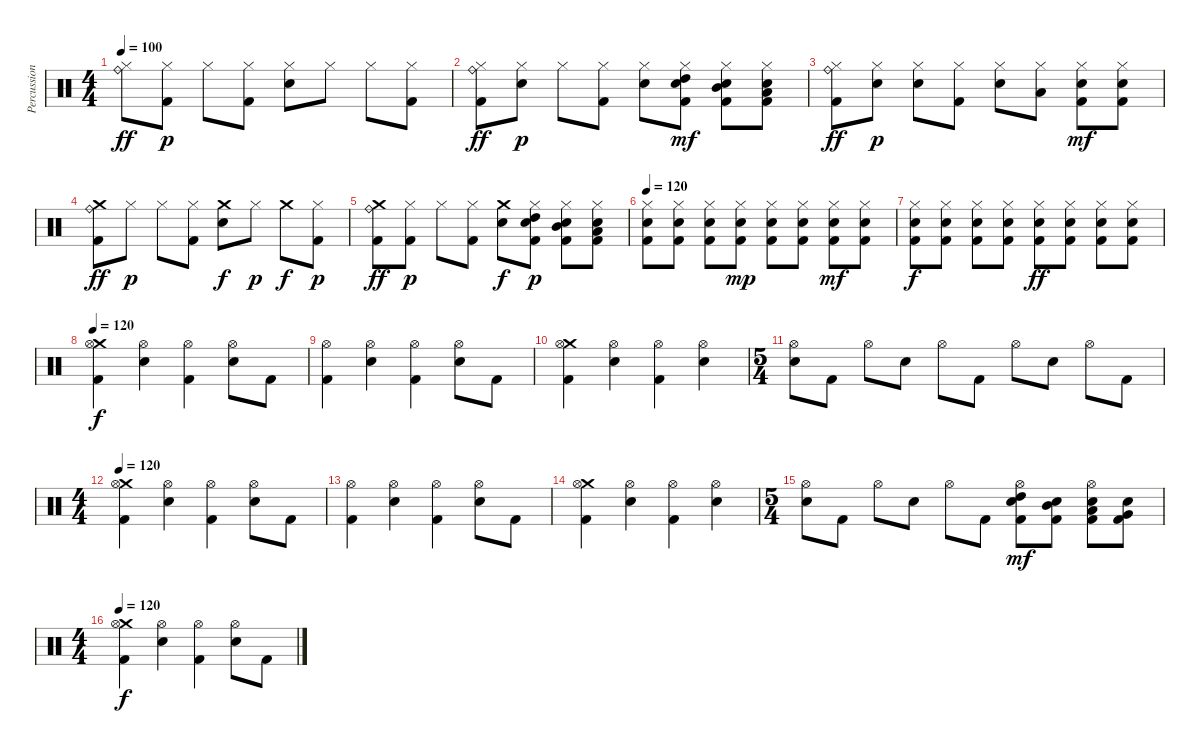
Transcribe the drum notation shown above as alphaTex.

\track ("Percussion" "Percussion") {instrument percussion}
\staff {score}
\articulation defaults
\ts (4 4)
\tempo 100
\clef neutral
\ks c
("Hi-Hat (closed)" "Ride (bell)").8{dy ff} ("Hi-Hat (closed)" "Kick (hit) 2").8{dy p} "Hi-Hat (closed)".8 ("Hi-Hat (closed)" "Kick (hit) 2").8 ("Hi-Hat (closed)" "Snare (hit) 2").8 "Hi-Hat (closed)".8 "Hi-Hat (closed)".8 ("Hi-Hat (closed)" "Kick (hit) 2").8 |
("Hi-Hat (closed)" "Ride (bell)" "Kick (hit) 2").8{dy ff} ("Hi-Hat (closed)" "Snare (hit) 2").8{dy p} "Hi-Hat (closed)".8 ("Hi-Hat (closed)" "Kick (hit) 2").8 ("Hi-Hat (closed)" "Snare (hit) 2").8 ("Hi-Hat (closed)" "High Tom (hit)" "Snare (hit) 2" "Kick (hit) 2").8{dy mf} ("Hi-Hat (closed)" "Mid Tom (hit)" "Snare (hit) 2" "Kick (hit) 2").8 ("Hi-Hat (closed)" "Low Tom (hit)" "Snare (hit) 2" "Kick (hit) 2").8 |
("Hi-Hat (closed)" "Ride (bell)" "Kick (hit) 2").8{dy ff} ("Hi-Hat (closed)" "Snare (hit) 2").8{dy p} ("Hi-Hat (closed)" "Snare (hit) 2").8 ("Hi-Hat (closed)" "Kick (hit) 2").8 ("Hi-Hat (closed)" "Snare (hit) 2").8 ("Hi-Hat (closed)" "Low Tom (hit)").8 ("Hi-Hat (closed)" "Snare (hit) 2" "Kick (hit) 2").8{dy mf} ("Hi-Hat (closed)" "Snare (hit) 2" "Kick (hit) 2").8 |
("Crash medium (hit)" "Ride (bell)" "Kick (hit) 2").8{dy ff} "Hi-Hat (closed)".8{dy p} "Hi-Hat (closed)".8 ("Hi-Hat (closed)" "Kick (hit) 2").8 ("Crash medium (hit)" "Snare (hit) 2").8{dy f} "Hi-Hat (closed)".8{dy p} "Crash medium (hit)".8{dy f} ("Hi-Hat (closed)" "Kick (hit) 2").8{dy p} |
("Crash medium (hit)" "Ride (bell)" "Kick (hit) 2").8{dy ff} ("Hi-Hat (closed)" "Kick (hit) 2").8{dy p} "Hi-Hat (closed)".8 ("Hi-Hat (closed)" "Kick (hit) 2").8 ("Crash medium (hit)" "Snare (hit) 2").8{dy f} ("Hi-Hat (closed)" "High Tom (hit)" "Snare (hit) 2" "Kick (hit) 2").8{dy p} ("Hi-Hat (closed)" "Mid Tom (hit)" "Snare (hit) 2" "Kick (hit) 2").8 ("Hi-Hat (closed)" "Low Tom (hit)" "Snare (hit) 2" "Kick (hit) 2").8 |
\tempo 120
("Hi-Hat (closed)" "Snare (hit) 2" "Kick (hit) 2").8 ("Hi-Hat (closed)" "Snare (hit) 2" "Kick (hit) 2").8 ("Hi-Hat (closed)" "Snare (hit) 2" "Kick (hit) 2").8 ("Hi-Hat (closed)" "Snare (hit) 2" "Kick (hit) 2").8{dy mp} ("Hi-Hat (closed)" "Snare (hit) 2" "Kick (hit) 2").8 ("Hi-Hat (closed)" "Snare (hit) 2" "Kick (hit) 2").8 ("Hi-Hat (closed)" "Snare (hit) 2" "Kick (hit) 2").8{dy mf} ("Hi-Hat (closed)" "Snare (hit) 2" "Kick (hit) 2").8 |
("Hi-Hat (closed)" "Snare (hit) 2" "Kick (hit) 2").8{dy f} ("Hi-Hat (closed)" "Snare (hit) 2" "Kick (hit) 2").8 ("Hi-Hat (closed)" "Snare (hit) 2" "Kick (hit) 2").8 ("Hi-Hat (closed)" "Snare (hit) 2" "Kick (hit) 2").8 ("Hi-Hat (closed)" "Snare (hit) 2" "Kick (hit) 2").8{dy ff} ("Hi-Hat (closed)" "Snare (hit) 2" "Kick (hit) 2").8 ("Hi-Hat (closed)" "Snare (hit) 2" "Kick (hit) 2").8 ("Hi-Hat (closed)" "Snare (hit) 2" "Kick (hit) 2").8 |
\tempo 120
("Crash medium (hit)" "Hi-Hat (open)" "Kick (hit) 2").4{dy f} ("Hi-Hat (open)" "Snare (hit) 2").4 ("Hi-Hat (open)" "Kick (hit) 2").4 ("Hi-Hat (open)" "Snare (hit) 2").8 "Kick (hit) 2".8 |
("Hi-Hat (open)" "Kick (hit) 2").4 ("Hi-Hat (open)" "Snare (hit) 2").4 ("Hi-Hat (open)" "Kick (hit) 2").4 ("Hi-Hat (open)" "Snare (hit) 2").8 "Kick (hit) 2".8 |
("Crash medium (hit)" "Hi-Hat (open)" "Kick (hit) 2").4 ("Hi-Hat (open)" "Snare (hit) 2").4 ("Hi-Hat (open)" "Kick (hit) 2").4 ("Hi-Hat (open)" "Snare (hit) 2").4 |
\ts (5 4)
("Hi-Hat (open)" "Snare (hit) 2").8 "Kick (hit) 2".8 "Hi-Hat (open)".8 "Snare (hit) 2".8 "Hi-Hat (open)".8 "Kick (hit) 2".8 "Hi-Hat (open)".8 "Snare (hit) 2".8 "Hi-Hat (open)".8 "Kick (hit) 2".8 |
\ts (4 4)
\tempo 120
("Crash medium (hit)" "Hi-Hat (open)" "Kick (hit) 2").4 ("Hi-Hat (open)" "Snare (hit) 2").4 ("Hi-Hat (open)" "Kick (hit) 2").4 ("Hi-Hat (open)" "Snare (hit) 2").8 "Kick (hit) 2".8 |
("Hi-Hat (open)" "Kick (hit) 2").4 ("Hi-Hat (open)" "Snare (hit) 2").4 ("Hi-Hat (open)" "Kick (hit) 2").4 ("Hi-Hat (open)" "Snare (hit) 2").8 "Kick (hit) 2".8 |
("Crash medium (hit)" "Hi-Hat (open)" "Kick (hit) 2").4 ("Hi-Hat (open)" "Snare (hit) 2").4 ("Hi-Hat (open)" "Kick (hit) 2").4 ("Hi-Hat (open)" "Snare (hit) 2").4 |
\ts (5 4)
("Hi-Hat (open)" "Snare (hit) 2").8 "Kick (hit) 2".8 "Hi-Hat (open)".8 "Snare (hit) 2".8 "Hi-Hat (open)".8 "Kick (hit) 2".8 ("Hi-Hat (open)" "High Tom (hit)" "Snare (hit) 2" "Kick (hit) 2").8{dy mf} ("Mid Tom (hit)" "Snare (hit) 2" "Kick (hit) 2").8 ("Hi-Hat (open)" "Low Tom (hit)" "Snare (hit) 2" "Kick (hit) 2").8 ("Very Low Tom (hit)" "Snare (hit) 2" "Kick (hit) 2").8 |
\ts (4 4)
\tempo 120
("Crash medium (hit)" "Hi-Hat (open)" "Kick (hit) 2").4{dy f} ("Hi-Hat (open)" "Snare (hit) 2").4 ("Hi-Hat (open)" "Kick (hit) 2").4 ("Hi-Hat (open)" "Snare (hit) 2").8 "Kick (hit) 2".8
